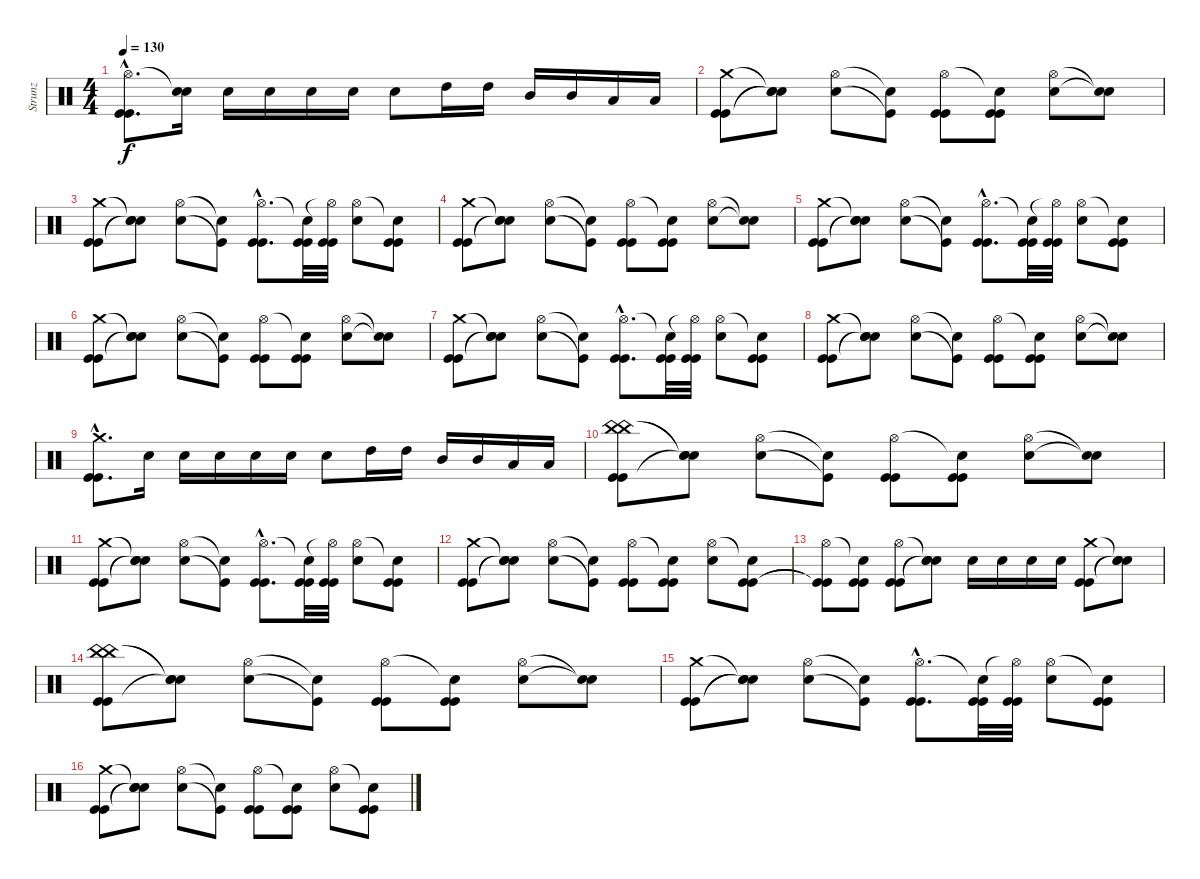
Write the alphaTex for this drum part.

\track ("Strunz" "Strunz") {instrument percussion}
\staff {score}
\articulation defaults
\ts (4 4)
\tempo 130
\clef neutral
\ks c
("Hi-Hat (open)"{hac} "Kick (hit)"{hac} "Kick (hit)"{hac}).8{d dy f} ("Snare (hit)"{t} "Electric Snare (hit)").16 "Electric Snare (hit)".16 "Electric Snare (hit)".16 "Electric Snare (hit)".16 "Electric Snare (hit)".16 "Electric Snare (hit)".8 "High Tom (hit)".16 "High Tom (hit)".16 "Mid Tom (hit)".16 "Mid Tom (hit)".16 "Low Tom (hit)".16 "Low Tom (hit)".16 |
("Crash medium (hit)" "Kick (hit)" "Kick (hit)").8 ("Snare (hit)"{t} "Electric Snare (hit)"{t} "Snare (hit)"{t}).8 ("Hi-Hat (open)" "Electric Snare (hit)").8 ("Snare (hit)"{t} "Kick (hit)"{t}).8 ("Hi-Hat (open)" "Kick (hit)" "Kick (hit)").8 ("Snare (hit)"{t} "Kick (hit)" "Kick (hit)").8 ("Hi-Hat (open)" "Electric Snare (hit)").8 ("Snare (hit)"{t} "Snare (hit)"{t}).8 |
("Crash medium (hit)" "Kick (hit)" "Kick (hit)").8 ("Snare (hit)"{t} "Electric Snare (hit)"{t} "Snare (hit)"{t}).8 ("Hi-Hat (open)" "Electric Snare (hit)").8 ("Snare (hit)"{t} "Kick (hit)"{t}).8 ("Hi-Hat (open)"{hac} "Kick (hit)"{hac} "Kick (hit)"{hac}).8{d} ("Snare (hit)"{t} "Kick (hit)" "Kick (hit)").32 ("Hi-Hat (open)"{t} "Kick (hit)" "Kick (hit)").32 ("Hi-Hat (open)" "Electric Snare (hit)").8 ("Snare (hit)"{t} "Kick (hit)" "Kick (hit)").8 |
("Crash medium (hit)" "Kick (hit)" "Kick (hit)").8 ("Snare (hit)"{t} "Electric Snare (hit)"{t} "Snare (hit)"{t}).8 ("Hi-Hat (open)" "Electric Snare (hit)").8 ("Snare (hit)"{t} "Kick (hit)"{t}).8 ("Hi-Hat (open)" "Kick (hit)" "Kick (hit)").8 ("Snare (hit)"{t} "Kick (hit)" "Kick (hit)").8 ("Hi-Hat (open)" "Electric Snare (hit)").8 ("Snare (hit)"{t} "Snare (hit)"{t}).8 |
("Crash medium (hit)" "Kick (hit)" "Kick (hit)").8 ("Snare (hit)"{t} "Electric Snare (hit)"{t} "Snare (hit)"{t}).8 ("Hi-Hat (open)" "Electric Snare (hit)").8 ("Snare (hit)"{t} "Kick (hit)"{t}).8 ("Hi-Hat (open)"{hac} "Kick (hit)"{hac} "Kick (hit)"{hac}).8{d} ("Snare (hit)"{t} "Kick (hit)" "Kick (hit)").32 ("Hi-Hat (open)"{t} "Kick (hit)" "Kick (hit)").32 ("Hi-Hat (open)" "Electric Snare (hit)").8 ("Snare (hit)"{t} "Kick (hit)" "Kick (hit)").8 |
("Crash medium (hit)" "Kick (hit)" "Kick (hit)").8 ("Snare (hit)"{t} "Electric Snare (hit)"{t} "Snare (hit)"{t}).8 ("Hi-Hat (open)" "Electric Snare (hit)").8 ("Snare (hit)"{t} "Kick (hit)"{t}).8 ("Hi-Hat (open)" "Kick (hit)" "Kick (hit)").8 ("Snare (hit)"{t} "Kick (hit)" "Kick (hit)").8 ("Hi-Hat (open)" "Electric Snare (hit)").8 ("Snare (hit)"{t} "Snare (hit)"{t}).8 |
("Crash medium (hit)" "Kick (hit)" "Kick (hit)").8 ("Snare (hit)"{t} "Electric Snare (hit)"{t} "Snare (hit)"{t}).8 ("Hi-Hat (open)" "Electric Snare (hit)").8 ("Snare (hit)"{t} "Kick (hit)"{t}).8 ("Hi-Hat (open)"{hac} "Kick (hit)"{hac} "Kick (hit)"{hac}).8{d} ("Snare (hit)"{t} "Kick (hit)" "Kick (hit)").32 ("Hi-Hat (open)"{t} "Kick (hit)" "Kick (hit)").32 ("Hi-Hat (open)" "Electric Snare (hit)").8 ("Snare (hit)"{t} "Kick (hit)" "Kick (hit)").8 |
("Crash medium (hit)" "Kick (hit)" "Kick (hit)").8 ("Snare (hit)"{t} "Electric Snare (hit)"{t} "Snare (hit)"{t}).8 ("Hi-Hat (open)" "Electric Snare (hit)").8 ("Snare (hit)"{t} "Kick (hit)"{t}).8 ("Hi-Hat (open)" "Kick (hit)" "Kick (hit)").8 ("Snare (hit)"{t} "Kick (hit)" "Kick (hit)").8 ("Hi-Hat (open)" "Electric Snare (hit)").8 ("Snare (hit)"{t} "Snare (hit)"{t}).8 |
("Crash medium (hit)"{hac} "Kick (hit)"{hac} "Kick (hit)"{hac}).8{d} "Electric Snare (hit)".16 "Electric Snare (hit)".16 "Electric Snare (hit)".16 "Electric Snare (hit)".16 "Electric Snare (hit)".16 "Electric Snare (hit)".8 "High Tom (hit)".16 "High Tom (hit)".16 "Mid Tom (hit)".16 "Mid Tom (hit)".16 "Low Tom (hit)".16 "Low Tom (hit)".16 |
("China (hit)" "China (hit)" "Kick (hit)" "Kick (hit)").8 ("Snare (hit)"{t} "Electric Snare (hit)"{t} "Snare (hit)"{t}).8 ("Hi-Hat (open)" "Electric Snare (hit)").8 ("Snare (hit)"{t} "Kick (hit)"{t}).8 ("Hi-Hat (open)" "Kick (hit)" "Kick (hit)").8 ("Snare (hit)"{t} "Kick (hit)" "Kick (hit)").8 ("Hi-Hat (open)" "Electric Snare (hit)").8 ("Snare (hit)"{t} "Snare (hit)"{t}).8 |
("Crash medium (hit)" "Kick (hit)" "Kick (hit)").8 ("Snare (hit)"{t} "Electric Snare (hit)"{t} "Snare (hit)"{t}).8 ("Hi-Hat (open)" "Electric Snare (hit)").8 ("Snare (hit)"{t} "Kick (hit)"{t}).8 ("Hi-Hat (open)"{hac} "Kick (hit)"{hac} "Kick (hit)"{hac}).8{d} ("Snare (hit)"{t} "Kick (hit)" "Kick (hit)").32 ("Hi-Hat (open)"{t} "Kick (hit)" "Kick (hit)").32 ("Hi-Hat (open)" "Electric Snare (hit)").8 ("Snare (hit)"{t} "Kick (hit)" "Kick (hit)").8 |
("Crash medium (hit)" "Kick (hit)" "Kick (hit)").8 ("Snare (hit)"{t} "Electric Snare (hit)"{t} "Snare (hit)"{t}).8 ("Hi-Hat (open)" "Electric Snare (hit)").8 ("Snare (hit)"{t} "Kick (hit)"{t}).8 ("Hi-Hat (open)" "Kick (hit)" "Kick (hit)").8 ("Snare (hit)"{t} "Kick (hit)" "Kick (hit)").8 ("Hi-Hat (open)" "Electric Snare (hit)").8 ("Snare (hit)"{t} "Kick (hit)" "Kick (hit)").8 |
("Hi-Hat (open)" "Kick (hit)"{t} "Kick (hit)"{t}).8 ("Snare (hit)"{t} "Kick (hit)" "Kick (hit)").8 ("Hi-Hat (open)" "Kick (hit)" "Kick (hit)").8 ("Snare (hit)"{t} "Snare (hit)"{t} "Snare (hit)"{t}).8 "Electric Snare (hit)".16 "Electric Snare (hit)".16 "Electric Snare (hit)".16 "Electric Snare (hit)".16 ("Crash medium (hit)" "Kick (hit)" "Kick (hit)").8 ("Snare (hit)"{t} "Snare (hit)"{t} "Snare (hit)"{t}).8 |
("China (hit)" "China (hit)" "Kick (hit)" "Kick (hit)").8 ("Snare (hit)"{t} "Electric Snare (hit)"{t} "Snare (hit)"{t}).8 ("Hi-Hat (open)" "Electric Snare (hit)").8 ("Snare (hit)"{t} "Kick (hit)"{t}).8 ("Hi-Hat (open)" "Kick (hit)" "Kick (hit)").8 ("Snare (hit)"{t} "Kick (hit)" "Kick (hit)").8 ("Hi-Hat (open)" "Electric Snare (hit)").8 ("Snare (hit)"{t} "Snare (hit)"{t}).8 |
("Crash medium (hit)" "Kick (hit)" "Kick (hit)").8 ("Snare (hit)"{t} "Electric Snare (hit)"{t} "Snare (hit)"{t}).8 ("Hi-Hat (open)" "Electric Snare (hit)").8 ("Snare (hit)"{t} "Kick (hit)"{t}).8 ("Hi-Hat (open)"{hac} "Kick (hit)"{hac} "Kick (hit)"{hac}).8{d} ("Snare (hit)"{t} "Kick (hit)" "Kick (hit)").32 ("Hi-Hat (open)"{t} "Kick (hit)" "Kick (hit)").32 ("Hi-Hat (open)" "Electric Snare (hit)").8 ("Snare (hit)"{t} "Kick (hit)" "Kick (hit)").8 |
("Crash medium (hit)" "Kick (hit)" "Kick (hit)").8 ("Snare (hit)"{t} "Electric Snare (hit)"{t} "Snare (hit)"{t}).8 ("Hi-Hat (open)" "Electric Snare (hit)").8 ("Snare (hit)"{t} "Kick (hit)"{t}).8 ("Hi-Hat (open)" "Kick (hit)" "Kick (hit)").8 ("Snare (hit)"{t} "Kick (hit)" "Kick (hit)").8 ("Hi-Hat (open)" "Electric Snare (hit)").8 ("Snare (hit)"{t} "Kick (hit)" "Kick (hit)").8
